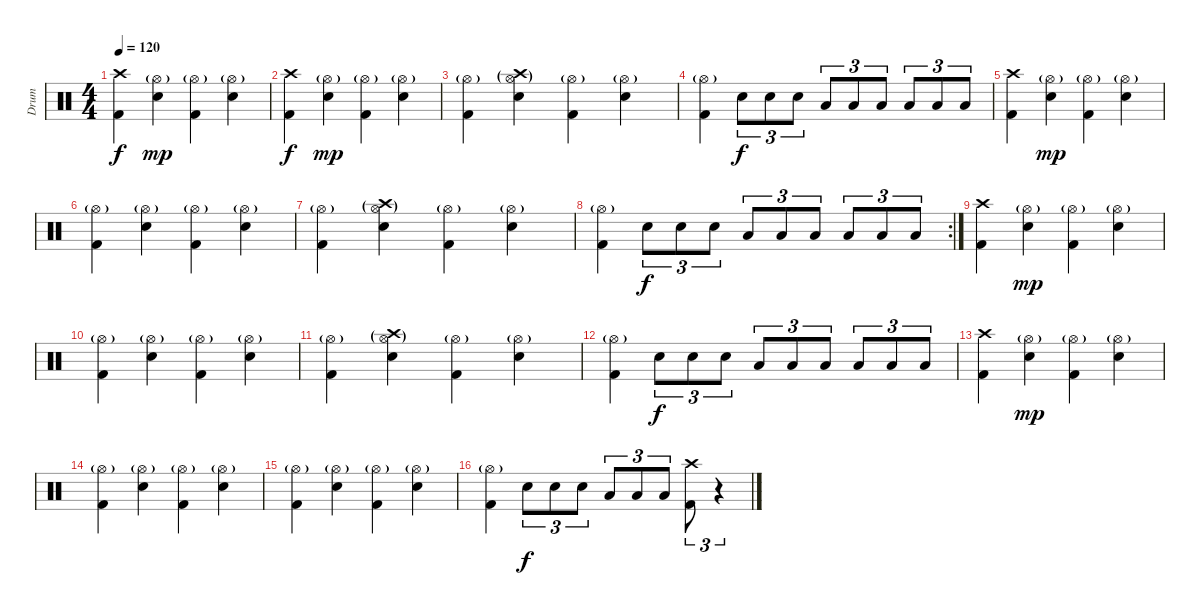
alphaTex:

\track ("Drum" "Drum") {instrument percussion}
\staff {score}
\articulation defaults
\ts (4 4)
\tempo 120
\clef neutral
\ks c
("Crash high (hit)" "Kick (hit) 2").4{dy f} ("Electric Snare (hit)" "Hi-Hat (open)"{g}).4{dy mp} ("Hi-Hat (open)"{g} "Kick (hit) 2").4 ("Electric Snare (hit)" "Hi-Hat (open)"{g}).4 |
("Crash high (hit)" "Kick (hit) 2").4{dy f} ("Electric Snare (hit)" "Hi-Hat (open)"{g}).4{dy mp} ("Hi-Hat (open)"{g} "Kick (hit) 2").4 ("Electric Snare (hit)" "Hi-Hat (open)"{g}).4 |
("Hi-Hat (open)"{g} "Kick (hit) 2").4 ("Electric Snare (hit)" "Hi-Hat (open)"{g} "Crash high (hit)"{g}).4 ("Hi-Hat (open)"{g} "Kick (hit) 2").4 ("Electric Snare (hit)" "Hi-Hat (open)"{g}).4 |
("Hi-Hat (open)"{g} "Kick (hit) 2").4 "Electric Snare (hit)".8{tu (3 2) dy f} "Electric Snare (hit)".8{tu (3 2)} "Electric Snare (hit)".8{tu (3 2)} "Low Tom (hit)".8{tu (3 2)} "Low Tom (hit)".8{tu (3 2)} "Low Tom (hit)".8{tu (3 2)} "Low Floor Tom (hit)".8{tu (3 2)} "Low Floor Tom (hit)".8{tu (3 2)} "Low Floor Tom (hit)".8{tu (3 2)} |
("Crash high (hit)" "Kick (hit) 2").4 ("Electric Snare (hit)" "Hi-Hat (open)"{g}).4{dy mp} ("Hi-Hat (open)"{g} "Kick (hit) 2").4 ("Electric Snare (hit)" "Hi-Hat (open)"{g}).4 |
("Hi-Hat (open)"{g} "Kick (hit) 2").4 ("Electric Snare (hit)" "Hi-Hat (open)"{g}).4 ("Hi-Hat (open)"{g} "Kick (hit) 2").4 ("Electric Snare (hit)" "Hi-Hat (open)"{g}).4 |
("Hi-Hat (open)"{g} "Kick (hit) 2").4 ("Electric Snare (hit)" "Hi-Hat (open)"{g} "Crash high (hit)"{g}).4 ("Hi-Hat (open)"{g} "Kick (hit) 2").4 ("Electric Snare (hit)" "Hi-Hat (open)"{g}).4 |
\rc 2
("Hi-Hat (open)"{g} "Kick (hit) 2").4 "Electric Snare (hit)".8{tu (3 2) dy f} "Electric Snare (hit)".8{tu (3 2)} "Electric Snare (hit)".8{tu (3 2)} "Low Tom (hit)".8{tu (3 2)} "Low Tom (hit)".8{tu (3 2)} "Low Tom (hit)".8{tu (3 2)} "Low Floor Tom (hit)".8{tu (3 2)} "Low Floor Tom (hit)".8{tu (3 2)} "Low Floor Tom (hit)".8{tu (3 2)} |
("Crash high (hit)" "Kick (hit) 2").4 ("Electric Snare (hit)" "Hi-Hat (open)"{g}).4{dy mp} ("Hi-Hat (open)"{g} "Kick (hit) 2").4 ("Electric Snare (hit)" "Hi-Hat (open)"{g}).4 |
("Hi-Hat (open)"{g} "Kick (hit) 2").4 ("Electric Snare (hit)" "Hi-Hat (open)"{g}).4 ("Hi-Hat (open)"{g} "Kick (hit) 2").4 ("Electric Snare (hit)" "Hi-Hat (open)"{g}).4 |
("Hi-Hat (open)"{g} "Kick (hit) 2").4 ("Electric Snare (hit)" "Hi-Hat (open)"{g} "Crash high (hit)"{g}).4 ("Hi-Hat (open)"{g} "Kick (hit) 2").4 ("Electric Snare (hit)" "Hi-Hat (open)"{g}).4 |
("Hi-Hat (open)"{g} "Kick (hit) 2").4 "Electric Snare (hit)".8{tu (3 2) dy f} "Electric Snare (hit)".8{tu (3 2)} "Electric Snare (hit)".8{tu (3 2)} "Low Tom (hit)".8{tu (3 2)} "Low Tom (hit)".8{tu (3 2)} "Low Tom (hit)".8{tu (3 2)} "Low Floor Tom (hit)".8{tu (3 2)} "Low Floor Tom (hit)".8{tu (3 2)} "Low Floor Tom (hit)".8{tu (3 2)} |
("Crash high (hit)" "Kick (hit) 2").4 ("Electric Snare (hit)" "Hi-Hat (open)"{g}).4{dy mp} ("Hi-Hat (open)"{g} "Kick (hit) 2").4 ("Electric Snare (hit)" "Hi-Hat (open)"{g}).4 |
("Hi-Hat (open)"{g} "Kick (hit) 2").4 ("Electric Snare (hit)" "Hi-Hat (open)"{g}).4 ("Hi-Hat (open)"{g} "Kick (hit) 2").4 ("Electric Snare (hit)" "Hi-Hat (open)"{g}).4 |
("Hi-Hat (open)"{g} "Kick (hit) 2").4 ("Electric Snare (hit)" "Hi-Hat (open)"{g}).4 ("Hi-Hat (open)"{g} "Kick (hit) 2").4 ("Electric Snare (hit)" "Hi-Hat (open)"{g}).4 |
("Hi-Hat (open)"{g} "Kick (hit) 2").4 "Electric Snare (hit)".8{tu (3 2) dy f} "Electric Snare (hit)".8{tu (3 2)} "Electric Snare (hit)".8{tu (3 2)} "Low Tom (hit)".8{tu (3 2)} "Low Tom (hit)".8{tu (3 2)} "Low Tom (hit)".8{tu (3 2)} ("Crash high (hit)" "Kick (hit) 2").8{tu (3 2)} r.4{tu (3 2)}
